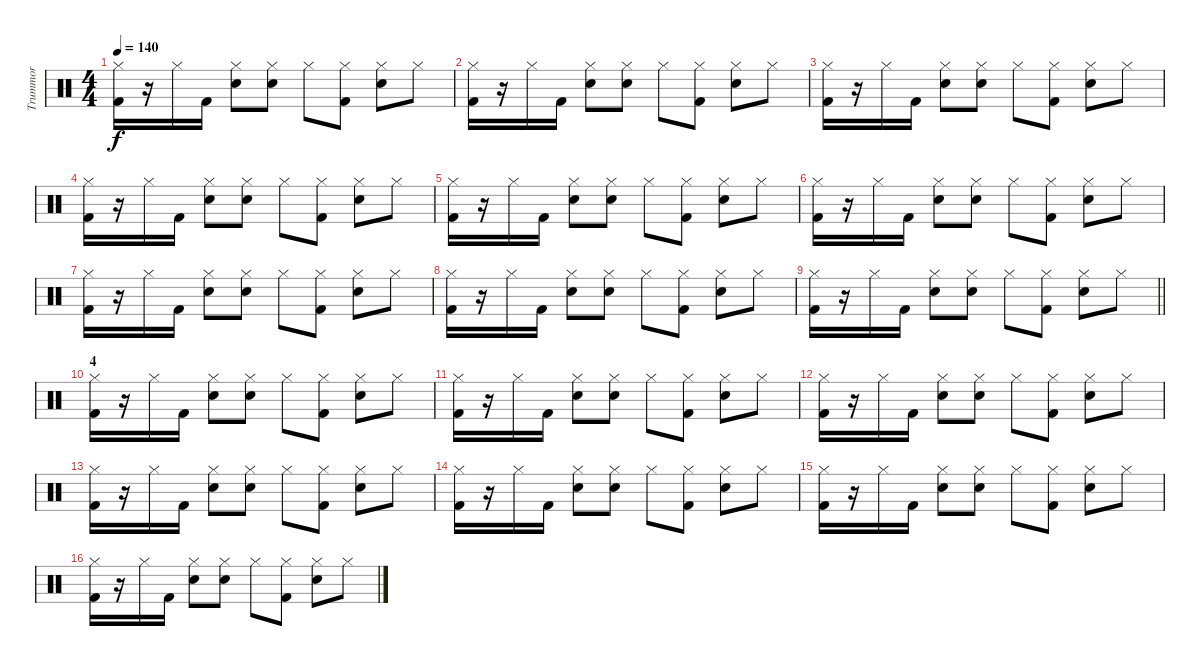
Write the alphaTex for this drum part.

\track ("Trummor" "Trummor") {instrument percussion}
\staff {score}
\articulation defaults
\ts (4 4)
\tempo 140
\clef neutral
\ks c
("Hi-Hat (closed)" "Kick (hit) 2").16{dy f} r.16 "Hi-Hat (closed)".16 "Kick (hit) 2".16 ("Hi-Hat (closed)" "Electric Snare (hit)").8 ("Hi-Hat (closed)" "Electric Snare (hit)").8 "Hi-Hat (closed)".8 ("Hi-Hat (closed)" "Kick (hit) 2").8 ("Hi-Hat (closed)" "Electric Snare (hit)").8 "Hi-Hat (closed)".8 |
("Hi-Hat (closed)" "Kick (hit) 2").16 r.16 "Hi-Hat (closed)".16 "Kick (hit) 2".16 ("Hi-Hat (closed)" "Electric Snare (hit)").8 ("Hi-Hat (closed)" "Electric Snare (hit)").8 "Hi-Hat (closed)".8 ("Hi-Hat (closed)" "Kick (hit) 2").8 ("Hi-Hat (closed)" "Electric Snare (hit)").8 "Hi-Hat (closed)".8 |
("Hi-Hat (closed)" "Kick (hit) 2").16 r.16 "Hi-Hat (closed)".16 "Kick (hit) 2".16 ("Hi-Hat (closed)" "Electric Snare (hit)").8 ("Hi-Hat (closed)" "Electric Snare (hit)").8 "Hi-Hat (closed)".8 ("Hi-Hat (closed)" "Kick (hit) 2").8 ("Hi-Hat (closed)" "Electric Snare (hit)").8 "Hi-Hat (closed)".8 |
("Hi-Hat (closed)" "Kick (hit) 2").16 r.16 "Hi-Hat (closed)".16 "Kick (hit) 2".16 ("Hi-Hat (closed)" "Electric Snare (hit)").8 ("Hi-Hat (closed)" "Electric Snare (hit)").8 "Hi-Hat (closed)".8 ("Hi-Hat (closed)" "Kick (hit) 2").8 ("Hi-Hat (closed)" "Electric Snare (hit)").8 "Hi-Hat (closed)".8 |
("Hi-Hat (closed)" "Kick (hit) 2").16 r.16 "Hi-Hat (closed)".16 "Kick (hit) 2".16 ("Hi-Hat (closed)" "Electric Snare (hit)").8 ("Hi-Hat (closed)" "Electric Snare (hit)").8 "Hi-Hat (closed)".8 ("Hi-Hat (closed)" "Kick (hit) 2").8 ("Hi-Hat (closed)" "Electric Snare (hit)").8 "Hi-Hat (closed)".8 |
("Hi-Hat (closed)" "Kick (hit) 2").16 r.16 "Hi-Hat (closed)".16 "Kick (hit) 2".16 ("Hi-Hat (closed)" "Electric Snare (hit)").8 ("Hi-Hat (closed)" "Electric Snare (hit)").8 "Hi-Hat (closed)".8 ("Hi-Hat (closed)" "Kick (hit) 2").8 ("Hi-Hat (closed)" "Electric Snare (hit)").8 "Hi-Hat (closed)".8 |
("Hi-Hat (closed)" "Kick (hit) 2").16 r.16 "Hi-Hat (closed)".16 "Kick (hit) 2".16 ("Hi-Hat (closed)" "Electric Snare (hit)").8 ("Hi-Hat (closed)" "Electric Snare (hit)").8 "Hi-Hat (closed)".8 ("Hi-Hat (closed)" "Kick (hit) 2").8 ("Hi-Hat (closed)" "Electric Snare (hit)").8 "Hi-Hat (closed)".8 |
("Hi-Hat (closed)" "Kick (hit) 2").16 r.16 "Hi-Hat (closed)".16 "Kick (hit) 2".16 ("Hi-Hat (closed)" "Electric Snare (hit)").8 ("Hi-Hat (closed)" "Electric Snare (hit)").8 "Hi-Hat (closed)".8 ("Hi-Hat (closed)" "Kick (hit) 2").8 ("Hi-Hat (closed)" "Electric Snare (hit)").8 "Hi-Hat (closed)".8 |
\barLineRight lightlight
("Hi-Hat (closed)" "Kick (hit) 2").16 r.16 "Hi-Hat (closed)".16 "Kick (hit) 2".16 ("Hi-Hat (closed)" "Electric Snare (hit)").8 ("Hi-Hat (closed)" "Electric Snare (hit)").8 "Hi-Hat (closed)".8 ("Hi-Hat (closed)" "Kick (hit) 2").8 ("Hi-Hat (closed)" "Electric Snare (hit)").8 "Hi-Hat (closed)".8 |
\section ("" "4")
("Hi-Hat (closed)" "Kick (hit) 2").16 r.16 "Hi-Hat (closed)".16 "Kick (hit) 2".16 ("Hi-Hat (closed)" "Electric Snare (hit)").8 ("Hi-Hat (closed)" "Electric Snare (hit)").8 "Hi-Hat (closed)".8 ("Hi-Hat (closed)" "Kick (hit) 2").8 ("Hi-Hat (closed)" "Electric Snare (hit)").8 "Hi-Hat (closed)".8 |
("Hi-Hat (closed)" "Kick (hit) 2").16 r.16 "Hi-Hat (closed)".16 "Kick (hit) 2".16 ("Hi-Hat (closed)" "Electric Snare (hit)").8 ("Hi-Hat (closed)" "Electric Snare (hit)").8 "Hi-Hat (closed)".8 ("Hi-Hat (closed)" "Kick (hit) 2").8 ("Hi-Hat (closed)" "Electric Snare (hit)").8 "Hi-Hat (closed)".8 |
("Hi-Hat (closed)" "Kick (hit) 2").16 r.16 "Hi-Hat (closed)".16 "Kick (hit) 2".16 ("Hi-Hat (closed)" "Electric Snare (hit)").8 ("Hi-Hat (closed)" "Electric Snare (hit)").8 "Hi-Hat (closed)".8 ("Hi-Hat (closed)" "Kick (hit) 2").8 ("Hi-Hat (closed)" "Electric Snare (hit)").8 "Hi-Hat (closed)".8 |
("Hi-Hat (closed)" "Kick (hit) 2").16 r.16 "Hi-Hat (closed)".16 "Kick (hit) 2".16 ("Hi-Hat (closed)" "Electric Snare (hit)").8 ("Hi-Hat (closed)" "Electric Snare (hit)").8 "Hi-Hat (closed)".8 ("Hi-Hat (closed)" "Kick (hit) 2").8 ("Hi-Hat (closed)" "Electric Snare (hit)").8 "Hi-Hat (closed)".8 |
("Hi-Hat (closed)" "Kick (hit) 2").16 r.16 "Hi-Hat (closed)".16 "Kick (hit) 2".16 ("Hi-Hat (closed)" "Electric Snare (hit)").8 ("Hi-Hat (closed)" "Electric Snare (hit)").8 "Hi-Hat (closed)".8 ("Hi-Hat (closed)" "Kick (hit) 2").8 ("Hi-Hat (closed)" "Electric Snare (hit)").8 "Hi-Hat (closed)".8 |
("Hi-Hat (closed)" "Kick (hit) 2").16 r.16 "Hi-Hat (closed)".16 "Kick (hit) 2".16 ("Hi-Hat (closed)" "Electric Snare (hit)").8 ("Hi-Hat (closed)" "Electric Snare (hit)").8 "Hi-Hat (closed)".8 ("Hi-Hat (closed)" "Kick (hit) 2").8 ("Hi-Hat (closed)" "Electric Snare (hit)").8 "Hi-Hat (closed)".8 |
("Hi-Hat (closed)" "Kick (hit) 2").16 r.16 "Hi-Hat (closed)".16 "Kick (hit) 2".16 ("Hi-Hat (closed)" "Electric Snare (hit)").8 ("Hi-Hat (closed)" "Electric Snare (hit)").8 "Hi-Hat (closed)".8 ("Hi-Hat (closed)" "Kick (hit) 2").8 ("Hi-Hat (closed)" "Electric Snare (hit)").8 "Hi-Hat (closed)".8
